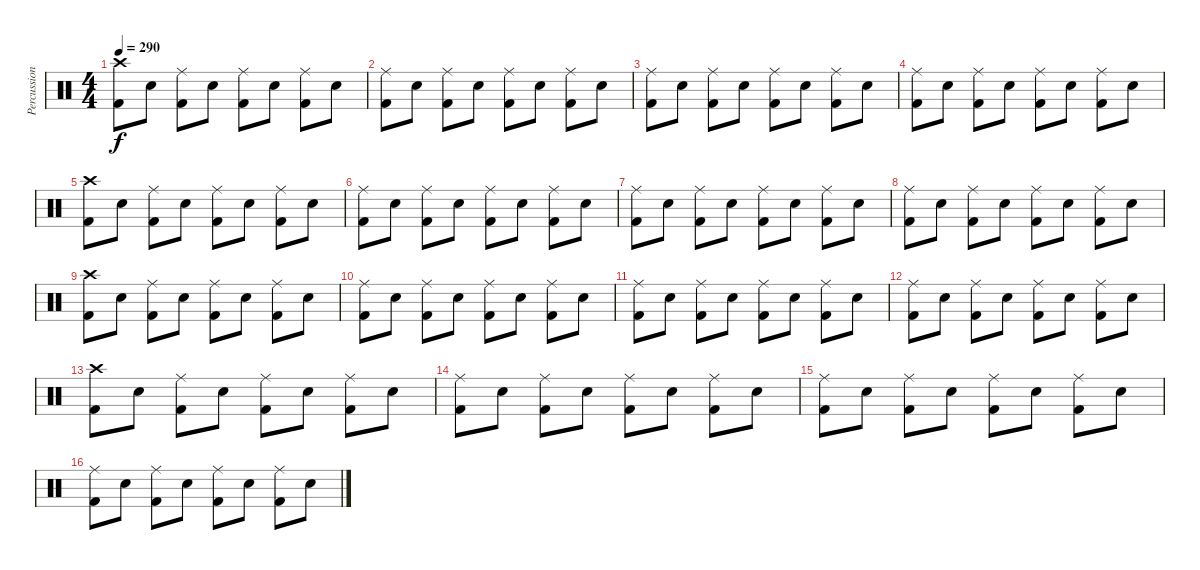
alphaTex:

\track ("Percussion" "Percussion") {instrument percussion}
\staff {score}
\articulation defaults
\ts (4 4)
\tempo 290
\clef neutral
\ks c
("Crash high (hit)" "Kick (hit) 2").8{dy f} "Snare (hit) 2".8 ("Ride (middle)" "Kick (hit) 2").8 "Snare (hit) 2".8 ("Ride (middle)" "Kick (hit) 2").8 "Snare (hit) 2".8 ("Ride (middle)" "Kick (hit) 2").8 "Snare (hit) 2".8 |
("Ride (middle)" "Kick (hit) 2").8 "Snare (hit) 2".8 ("Ride (middle)" "Kick (hit) 2").8 "Snare (hit) 2".8 ("Ride (middle)" "Kick (hit) 2").8 "Snare (hit) 2".8 ("Ride (middle)" "Kick (hit) 2").8 "Snare (hit) 2".8 |
("Ride (middle)" "Kick (hit) 2").8 "Snare (hit) 2".8 ("Ride (middle)" "Kick (hit) 2").8 "Snare (hit) 2".8 ("Ride (middle)" "Kick (hit) 2").8 "Snare (hit) 2".8 ("Ride (middle)" "Kick (hit) 2").8 "Snare (hit) 2".8 |
("Ride (middle)" "Kick (hit) 2").8 "Snare (hit) 2".8 ("Ride (middle)" "Kick (hit) 2").8 "Snare (hit) 2".8 ("Ride (middle)" "Kick (hit) 2").8 "Snare (hit) 2".8 ("Ride (middle)" "Kick (hit) 2").8 "Snare (hit) 2".8 |
("Crash high (hit)" "Kick (hit) 2").8 "Snare (hit) 2".8 ("Ride (middle)" "Kick (hit) 2").8 "Snare (hit) 2".8 ("Ride (middle)" "Kick (hit) 2").8 "Snare (hit) 2".8 ("Ride (middle)" "Kick (hit) 2").8 "Snare (hit) 2".8 |
("Ride (middle)" "Kick (hit) 2").8 "Snare (hit) 2".8 ("Ride (middle)" "Kick (hit) 2").8 "Snare (hit) 2".8 ("Ride (middle)" "Kick (hit) 2").8 "Snare (hit) 2".8 ("Ride (middle)" "Kick (hit) 2").8 "Snare (hit) 2".8 |
("Ride (middle)" "Kick (hit) 2").8 "Snare (hit) 2".8 ("Ride (middle)" "Kick (hit) 2").8 "Snare (hit) 2".8 ("Ride (middle)" "Kick (hit) 2").8 "Snare (hit) 2".8 ("Ride (middle)" "Kick (hit) 2").8 "Snare (hit) 2".8 |
("Ride (middle)" "Kick (hit) 2").8 "Snare (hit) 2".8 ("Ride (middle)" "Kick (hit) 2").8 "Snare (hit) 2".8 ("Ride (middle)" "Kick (hit) 2").8 "Snare (hit) 2".8 ("Ride (middle)" "Kick (hit) 2").8 "Snare (hit) 2".8 |
("Crash high (hit)" "Kick (hit) 2").8 "Snare (hit) 2".8 ("Ride (middle)" "Kick (hit) 2").8 "Snare (hit) 2".8 ("Ride (middle)" "Kick (hit) 2").8 "Snare (hit) 2".8 ("Ride (middle)" "Kick (hit) 2").8 "Snare (hit) 2".8 |
("Ride (middle)" "Kick (hit) 2").8 "Snare (hit) 2".8 ("Ride (middle)" "Kick (hit) 2").8 "Snare (hit) 2".8 ("Ride (middle)" "Kick (hit) 2").8 "Snare (hit) 2".8 ("Ride (middle)" "Kick (hit) 2").8 "Snare (hit) 2".8 |
("Ride (middle)" "Kick (hit) 2").8 "Snare (hit) 2".8 ("Ride (middle)" "Kick (hit) 2").8 "Snare (hit) 2".8 ("Ride (middle)" "Kick (hit) 2").8 "Snare (hit) 2".8 ("Ride (middle)" "Kick (hit) 2").8 "Snare (hit) 2".8 |
("Ride (middle)" "Kick (hit) 2").8 "Snare (hit) 2".8 ("Ride (middle)" "Kick (hit) 2").8 "Snare (hit) 2".8 ("Ride (middle)" "Kick (hit) 2").8 "Snare (hit) 2".8 ("Ride (middle)" "Kick (hit) 2").8 "Snare (hit) 2".8 |
("Crash high (hit)" "Kick (hit) 2").8 "Snare (hit) 2".8 ("Ride (middle)" "Kick (hit) 2").8 "Snare (hit) 2".8 ("Ride (middle)" "Kick (hit) 2").8 "Snare (hit) 2".8 ("Ride (middle)" "Kick (hit) 2").8 "Snare (hit) 2".8 |
("Ride (middle)" "Kick (hit) 2").8 "Snare (hit) 2".8 ("Ride (middle)" "Kick (hit) 2").8 "Snare (hit) 2".8 ("Ride (middle)" "Kick (hit) 2").8 "Snare (hit) 2".8 ("Ride (middle)" "Kick (hit) 2").8 "Snare (hit) 2".8 |
("Ride (middle)" "Kick (hit) 2").8 "Snare (hit) 2".8 ("Ride (middle)" "Kick (hit) 2").8 "Snare (hit) 2".8 ("Ride (middle)" "Kick (hit) 2").8 "Snare (hit) 2".8 ("Ride (middle)" "Kick (hit) 2").8 "Snare (hit) 2".8 |
("Ride (middle)" "Kick (hit) 2").8 "Snare (hit) 2".8 ("Ride (middle)" "Kick (hit) 2").8 "Snare (hit) 2".8 ("Ride (middle)" "Kick (hit) 2").8 "Snare (hit) 2".8 ("Ride (middle)" "Kick (hit) 2").8 "Snare (hit) 2".8
